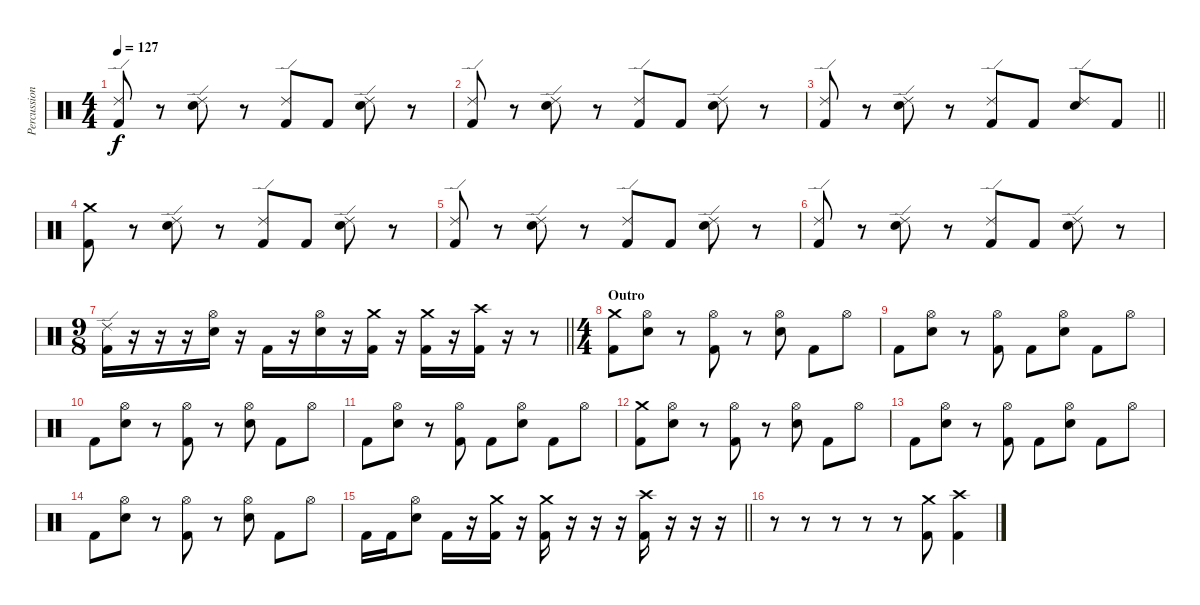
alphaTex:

\track ("Percussion" "Percussion") {instrument percussion}
\staff {score}
\articulation defaults
\ts (4 4)
\tempo 127
\clef neutral
\ks c
("Ride (edge) 2" "Kick (hit) 2").8{dy f} r.8 ("Ride (edge) 2" "Electric Snare (hit)").8 r.8 ("Ride (edge) 2" "Kick (hit) 2").8 "Kick (hit) 2".8 ("Ride (edge) 2" "Electric Snare (hit)").8 r.8 |
("Ride (edge) 2" "Kick (hit) 2").8 r.8 ("Ride (edge) 2" "Electric Snare (hit)").8 r.8 ("Ride (edge) 2" "Kick (hit) 2").8 "Kick (hit) 2".8 ("Ride (edge) 2" "Electric Snare (hit)").8 r.8 |
\barLineRight lightlight
("Ride (edge) 2" "Kick (hit) 2").8 r.8 ("Ride (edge) 2" "Electric Snare (hit)").8 r.8 ("Ride (edge) 2" "Kick (hit) 2").8 "Kick (hit) 2".8 ("Ride (edge) 2" "Electric Snare (hit)").8 "Kick (hit) 2".8 |
("Crash medium (hit)" "Kick (hit) 2").8 r.8 ("Ride (edge) 2" "Electric Snare (hit)").8 r.8 ("Ride (edge) 2" "Kick (hit) 2").8 "Kick (hit) 2".8 ("Ride (edge) 2" "Electric Snare (hit)").8 r.8 |
("Ride (edge) 2" "Kick (hit) 2").8 r.8 ("Ride (edge) 2" "Electric Snare (hit)").8 r.8 ("Ride (edge) 2" "Kick (hit) 2").8 "Kick (hit) 2".8 ("Ride (edge) 2" "Electric Snare (hit)").8 r.8 |
("Ride (edge) 2" "Kick (hit) 2").8 r.8 ("Ride (edge) 2" "Electric Snare (hit)").8 r.8 ("Ride (edge) 2" "Kick (hit) 2").8 "Kick (hit) 2".8 ("Ride (edge) 2" "Electric Snare (hit)").8 r.8 |
\ts (9 8)
\barLineRight lightlight
("Ride (edge) 2" "Kick (hit) 2").16 r.16 r.16 r.16 ("Hi-Hat (open)" "Electric Snare (hit)").16 r.16 "Kick (hit) 2".16 r.16 ("Hi-Hat (open)" "Electric Snare (hit)").16 r.16 ("Crash medium (hit)" "Kick (hit) 2").16 r.16 ("Crash medium (hit)" "Kick (hit) 2").16 r.16 ("Crash high (hit)" "Kick (hit) 2").16 r.16 r.8 |
\ts (4 4)
\section ("" "Outro")
("Crash medium (hit)" "Kick (hit) 2").8 ("Hi-Hat (open)" "Electric Snare (hit)").8 r.8 ("Hi-Hat (open)" "Kick (hit) 2").8 r.8 ("Hi-Hat (open)" "Electric Snare (hit)").8 "Kick (hit) 2".8 "Hi-Hat (open)".8 |
"Kick (hit) 2".8 ("Hi-Hat (open)" "Electric Snare (hit)").8 r.8 ("Hi-Hat (open)" "Kick (hit) 2").8 "Kick (hit) 2".8 ("Hi-Hat (open)" "Electric Snare (hit)").8 "Kick (hit) 2".8 "Hi-Hat (open)".8 |
"Kick (hit) 2".8 ("Hi-Hat (open)" "Electric Snare (hit)").8 r.8 ("Hi-Hat (open)" "Kick (hit) 2").8 r.8 ("Hi-Hat (open)" "Electric Snare (hit)").8 "Kick (hit) 2".8 "Hi-Hat (open)".8 |
"Kick (hit) 2".8 ("Hi-Hat (open)" "Electric Snare (hit)").8 r.8 ("Hi-Hat (open)" "Kick (hit) 2").8 "Kick (hit) 2".8 ("Hi-Hat (open)" "Electric Snare (hit)").8 "Kick (hit) 2".8 "Hi-Hat (open)".8 |
("Crash medium (hit)" "Kick (hit) 2").8 ("Hi-Hat (open)" "Electric Snare (hit)").8 r.8 ("Hi-Hat (open)" "Kick (hit) 2").8 r.8 ("Hi-Hat (open)" "Electric Snare (hit)").8 "Kick (hit) 2".8 "Hi-Hat (open)".8 |
"Kick (hit) 2".8 ("Hi-Hat (open)" "Electric Snare (hit)").8 r.8 ("Hi-Hat (open)" "Kick (hit) 2").8 "Kick (hit) 2".8 ("Hi-Hat (open)" "Electric Snare (hit)").8 "Kick (hit) 2".8 "Hi-Hat (open)".8 |
"Kick (hit) 2".8 ("Hi-Hat (open)" "Electric Snare (hit)").8 r.8 ("Hi-Hat (open)" "Kick (hit) 2").8 r.8 ("Hi-Hat (open)" "Electric Snare (hit)").8 "Kick (hit) 2".8 "Hi-Hat (open)".8 |
\barLineRight lightlight "Kick (hit) 2".16 "Kick (hit) 2".16
("Hi-Hat (open)" "Electric Snare (hit)").8 "Kick (hit) 2".16 r.16 ("Crash medium (hit)" "Kick (hit) 2").16 r.16 ("Crash medium (hit)" "Kick (hit) 2").16 r.16 r.16 r.16 ("Crash high (hit)" "Kick (hit) 2").16 r.16 r.16 r.16 |
r.8 r.8 r.8 r.8 r.8 ("Crash medium (hit)" "Kick (hit) 2").8 ("Crash high (hit)" "Kick (hit) 2").4
